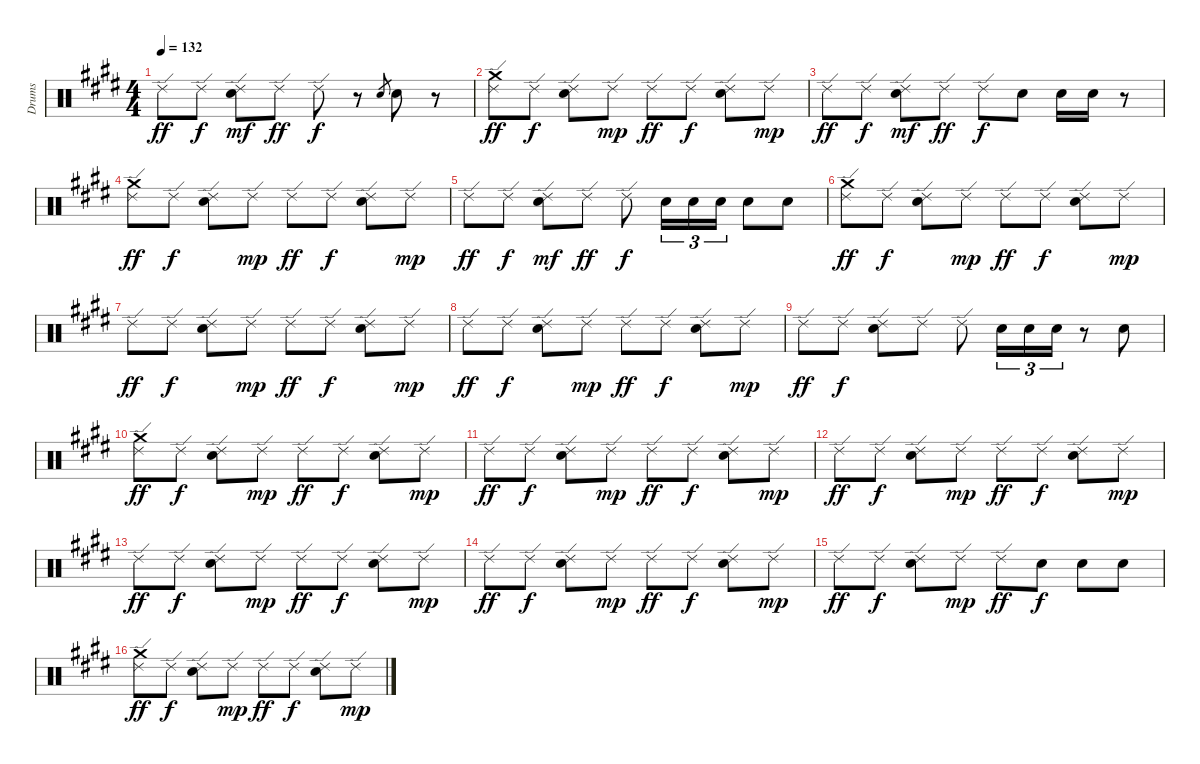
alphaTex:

\track ("Drums" "Drums") {instrument percussion}
\staff {score}
\articulation defaults
\ts (4 4)
\tempo 132
\clef neutral
\ks e "Ride (edge) 2".8{dy ff} "Ride (edge) 2".8{dy f}
("Electric Snare (hit)" "Ride (edge) 2").8{dy mf} "Ride (edge) 2".8{dy ff} "Ride (edge) 2".8{dy f} r.8 "Electric Snare (hit)".8{gr} "Electric Snare (hit)".8 r.8 |
("Crash medium (hit)" "Ride (edge) 2").8{dy ff} "Ride (edge) 2".8{dy f} ("Electric Snare (hit)" "Ride (edge) 2").8 "Ride (edge) 2".8{dy mp} "Ride (edge) 2".8{dy ff} "Ride (edge) 2".8{dy f} ("Electric Snare (hit)" "Ride (edge) 2").8 "Ride (edge) 2".8{dy mp} |
"Ride (edge) 2".8{dy ff} "Ride (edge) 2".8{dy f} ("Electric Snare (hit)" "Ride (edge) 2").8{dy mf} "Ride (edge) 2".8{dy ff} "Ride (edge) 2".8{dy f} "Electric Snare (hit)".8 "Electric Snare (hit)".16 "Electric Snare (hit)".16 r.8 |
("Crash medium (hit)" "Ride (edge) 2").8{dy ff} "Ride (edge) 2".8{dy f} ("Electric Snare (hit)" "Ride (edge) 2").8 "Ride (edge) 2".8{dy mp} "Ride (edge) 2".8{dy ff} "Ride (edge) 2".8{dy f} ("Electric Snare (hit)" "Ride (edge) 2").8 "Ride (edge) 2".8{dy mp} |
"Ride (edge) 2".8{dy ff} "Ride (edge) 2".8{dy f} ("Electric Snare (hit)" "Ride (edge) 2").8{dy mf} "Ride (edge) 2".8{dy ff} "Ride (edge) 2".8{dy f} "Electric Snare (hit)".16{tu (3 2)} "Electric Snare (hit)".16{tu (3 2)} "Electric Snare (hit)".16{tu (3 2)} "Electric Snare (hit)".8 "Electric Snare (hit)".8 |
("Crash medium (hit)" "Ride (edge) 2").8{dy ff} "Ride (edge) 2".8{dy f} ("Electric Snare (hit)" "Ride (edge) 2").8 "Ride (edge) 2".8{dy mp} "Ride (edge) 2".8{dy ff} "Ride (edge) 2".8{dy f} ("Electric Snare (hit)" "Ride (edge) 2").8 "Ride (edge) 2".8{dy mp} |
"Ride (edge) 2".8{dy ff} "Ride (edge) 2".8{dy f} ("Electric Snare (hit)" "Ride (edge) 2").8 "Ride (edge) 2".8{dy mp} "Ride (edge) 2".8{dy ff} "Ride (edge) 2".8{dy f} ("Electric Snare (hit)" "Ride (edge) 2").8 "Ride (edge) 2".8{dy mp} |
"Ride (edge) 2".8{dy ff} "Ride (edge) 2".8{dy f} ("Electric Snare (hit)" "Ride (edge) 2").8 "Ride (edge) 2".8{dy mp} "Ride (edge) 2".8{dy ff} "Ride (edge) 2".8{dy f} ("Electric Snare (hit)" "Ride (edge) 2").8 "Ride (edge) 2".8{dy mp} |
"Ride (edge) 2".8{dy ff} "Ride (edge) 2".8{dy f} ("Electric Snare (hit)" "Ride (edge) 2").8 "Ride (edge) 2".8 "Ride (edge) 2".8 "Electric Snare (hit)".16{tu (3 2)} "Electric Snare (hit)".16{tu (3 2)} "Electric Snare (hit)".16{tu (3 2)} r.8 "Electric Snare (hit)".8 |
("Crash medium (hit)" "Ride (edge) 2").8{dy ff} "Ride (edge) 2".8{dy f} ("Electric Snare (hit)" "Ride (edge) 2").8 "Ride (edge) 2".8{dy mp} "Ride (edge) 2".8{dy ff} "Ride (edge) 2".8{dy f} ("Electric Snare (hit)" "Ride (edge) 2").8 "Ride (edge) 2".8{dy mp} |
"Ride (edge) 2".8{dy ff} "Ride (edge) 2".8{dy f} ("Electric Snare (hit)" "Ride (edge) 2").8 "Ride (edge) 2".8{dy mp} "Ride (edge) 2".8{dy ff} "Ride (edge) 2".8{dy f} ("Electric Snare (hit)" "Ride (edge) 2").8 "Ride (edge) 2".8{dy mp} |
"Ride (edge) 2".8{dy ff} "Ride (edge) 2".8{dy f} ("Electric Snare (hit)" "Ride (edge) 2").8 "Ride (edge) 2".8{dy mp} "Ride (edge) 2".8{dy ff} "Ride (edge) 2".8{dy f} ("Electric Snare (hit)" "Ride (edge) 2").8 "Ride (edge) 2".8{dy mp} |
"Ride (edge) 2".8{dy ff} "Ride (edge) 2".8{dy f} ("Electric Snare (hit)" "Ride (edge) 2").8 "Ride (edge) 2".8{dy mp} "Ride (edge) 2".8{dy ff} "Ride (edge) 2".8{dy f} ("Electric Snare (hit)" "Ride (edge) 2").8 "Ride (edge) 2".8{dy mp} |
"Ride (edge) 2".8{dy ff} "Ride (edge) 2".8{dy f} ("Electric Snare (hit)" "Ride (edge) 2").8 "Ride (edge) 2".8{dy mp} "Ride (edge) 2".8{dy ff} "Ride (edge) 2".8{dy f} ("Electric Snare (hit)" "Ride (edge) 2").8 "Ride (edge) 2".8{dy mp} |
"Ride (edge) 2".8{dy ff} "Ride (edge) 2".8{dy f} ("Electric Snare (hit)" "Ride (edge) 2").8 "Ride (edge) 2".8{dy mp} "Ride (edge) 2".8{dy ff} "Electric Snare (hit)".8{dy f} "Electric Snare (hit)".8 "Electric Snare (hit)".8 |
("Crash medium (hit)" "Ride (edge) 2").8{dy ff} "Ride (edge) 2".8{dy f} ("Electric Snare (hit)" "Ride (edge) 2").8 "Ride (edge) 2".8{dy mp} "Ride (edge) 2".8{dy ff} "Ride (edge) 2".8{dy f} ("Electric Snare (hit)" "Ride (edge) 2").8 "Ride (edge) 2".8{dy mp}
